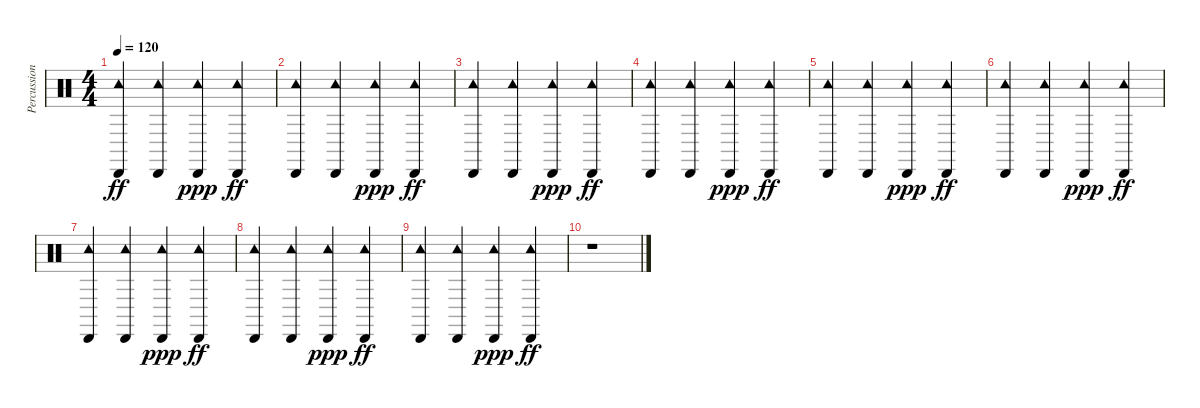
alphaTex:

\track ("Percussion" "Percussion") {instrument percussion}
\staff {score}
\articulation defaults
\ts (4 4)
\tempo 120
\clef neutral
\ks c
("Cabasa (hit)" "Tambourine (hit)").4{dy ff} ("Cabasa (hit)" "Tambourine (hit)").4 ("Cabasa (hit)" "Tambourine (hit)").4{dy ppp} ("Cabasa (hit)" "Tambourine (hit)").4{dy ff} |
("Cabasa (hit)" "Tambourine (hit)").4 ("Cabasa (hit)" "Tambourine (hit)").4 ("Cabasa (hit)" "Tambourine (hit)").4{dy ppp} ("Cabasa (hit)" "Tambourine (hit)").4{dy ff} |
("Cabasa (hit)" "Tambourine (hit)").4 ("Cabasa (hit)" "Tambourine (hit)").4 ("Cabasa (hit)" "Tambourine (hit)").4{dy ppp} ("Cabasa (hit)" "Tambourine (hit)").4{dy ff} |
("Cabasa (hit)" "Tambourine (hit)").4 ("Cabasa (hit)" "Tambourine (hit)").4 ("Cabasa (hit)" "Tambourine (hit)").4{dy ppp} ("Cabasa (hit)" "Tambourine (hit)").4{dy ff} |
("Cabasa (hit)" "Tambourine (hit)").4 ("Cabasa (hit)" "Tambourine (hit)").4 ("Cabasa (hit)" "Tambourine (hit)").4{dy ppp} ("Cabasa (hit)" "Tambourine (hit)").4{dy ff} |
("Cabasa (hit)" "Tambourine (hit)").4 ("Cabasa (hit)" "Tambourine (hit)").4 ("Cabasa (hit)" "Tambourine (hit)").4{dy ppp} ("Cabasa (hit)" "Tambourine (hit)").4{dy ff} |
("Cabasa (hit)" "Tambourine (hit)").4 ("Cabasa (hit)" "Tambourine (hit)").4 ("Cabasa (hit)" "Tambourine (hit)").4{dy ppp} ("Cabasa (hit)" "Tambourine (hit)").4{dy ff} |
("Cabasa (hit)" "Tambourine (hit)").4 ("Cabasa (hit)" "Tambourine (hit)").4 ("Cabasa (hit)" "Tambourine (hit)").4{dy ppp} ("Cabasa (hit)" "Tambourine (hit)").4{dy ff} |
("Cabasa (hit)" "Tambourine (hit)").4 ("Cabasa (hit)" "Tambourine (hit)").4 ("Cabasa (hit)" "Tambourine (hit)").4{dy ppp} ("Cabasa (hit)" "Tambourine (hit)").4{dy ff} |
r.1
